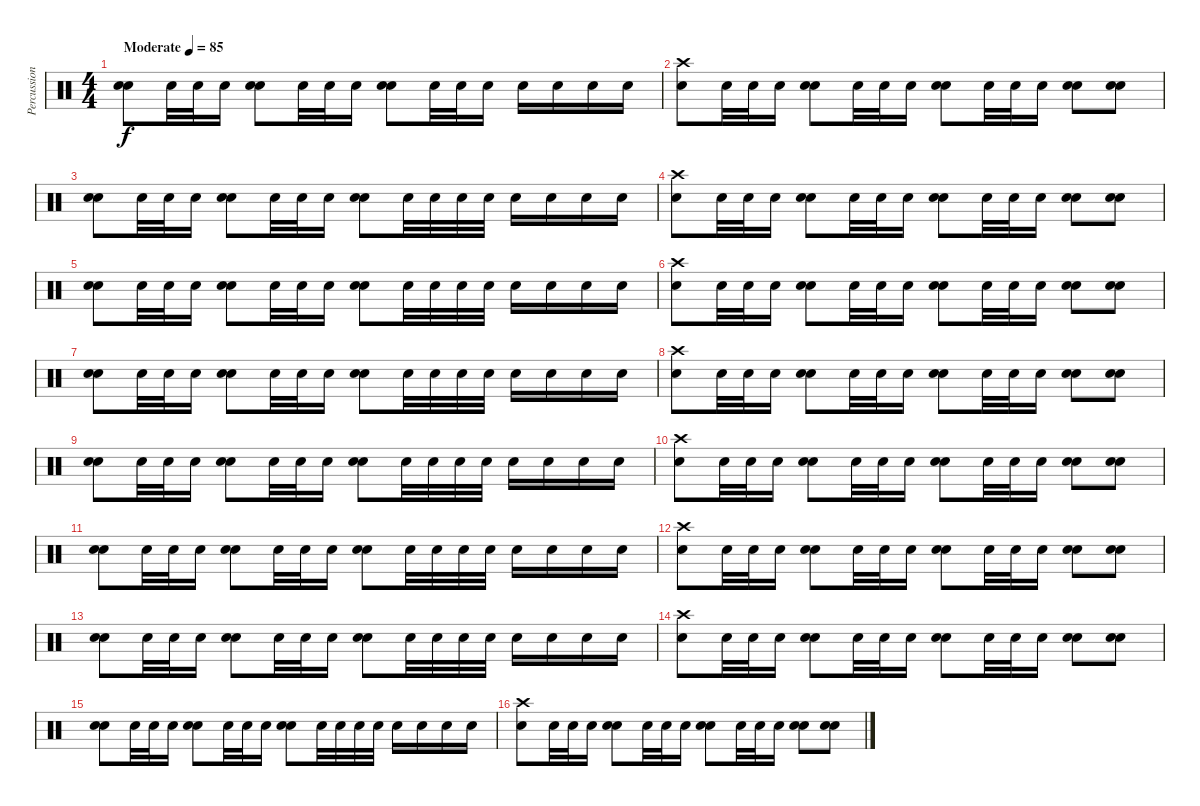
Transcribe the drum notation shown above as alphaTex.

\track ("Percussion" "Percussion") {instrument percussion}
\staff {score}
\articulation defaults
\ts (4 4)
\tempo (85 "Moderate")
\clef neutral
\ks c
("Electric Snare (hit)" "Electric Snare (hit)").8{dy f} "Electric Snare (hit)".32 "Electric Snare (hit)".32 "Electric Snare (hit)".16 ("Electric Snare (hit)" "Electric Snare (hit)").8 "Electric Snare (hit)".32 "Electric Snare (hit)".32 "Electric Snare (hit)".16 ("Electric Snare (hit)" "Electric Snare (hit)").8 "Electric Snare (hit)".32 "Electric Snare (hit)".32 "Electric Snare (hit)".16 "Electric Snare (hit)".16 "Electric Snare (hit)".16 "Electric Snare (hit)".16 "Electric Snare (hit)".16 |
("Crash high (hit)" "Electric Snare (hit)").8 "Electric Snare (hit)".32 "Electric Snare (hit)".32 "Electric Snare (hit)".16 ("Electric Snare (hit)" "Electric Snare (hit)").8 "Electric Snare (hit)".32 "Electric Snare (hit)".32 "Electric Snare (hit)".16 ("Electric Snare (hit)" "Electric Snare (hit)").8 "Electric Snare (hit)".32 "Electric Snare (hit)".32 "Electric Snare (hit)".16 ("Electric Snare (hit)" "Electric Snare (hit)").8 ("Electric Snare (hit)" "Electric Snare (hit)").8 |
("Electric Snare (hit)" "Electric Snare (hit)").8 "Electric Snare (hit)".32 "Electric Snare (hit)".32 "Electric Snare (hit)".16 ("Electric Snare (hit)" "Electric Snare (hit)").8 "Electric Snare (hit)".32 "Electric Snare (hit)".32 "Electric Snare (hit)".16 ("Electric Snare (hit)" "Electric Snare (hit)").8 "Electric Snare (hit)".32 "Electric Snare (hit)".32 "Electric Snare (hit)".32 "Electric Snare (hit)".32 "Electric Snare (hit)".16 "Electric Snare (hit)".16 "Electric Snare (hit)".16 "Electric Snare (hit)".16 |
("Crash high (hit)" "Electric Snare (hit)").8 "Electric Snare (hit)".32 "Electric Snare (hit)".32 "Electric Snare (hit)".16 ("Electric Snare (hit)" "Electric Snare (hit)").8 "Electric Snare (hit)".32 "Electric Snare (hit)".32 "Electric Snare (hit)".16 ("Electric Snare (hit)" "Electric Snare (hit)").8 "Electric Snare (hit)".32 "Electric Snare (hit)".32 "Electric Snare (hit)".16 ("Electric Snare (hit)" "Electric Snare (hit)").8 ("Electric Snare (hit)" "Electric Snare (hit)").8 |
("Electric Snare (hit)" "Electric Snare (hit)").8 "Electric Snare (hit)".32 "Electric Snare (hit)".32 "Electric Snare (hit)".16 ("Electric Snare (hit)" "Electric Snare (hit)").8 "Electric Snare (hit)".32 "Electric Snare (hit)".32 "Electric Snare (hit)".16 ("Electric Snare (hit)" "Electric Snare (hit)").8 "Electric Snare (hit)".32 "Electric Snare (hit)".32 "Electric Snare (hit)".32 "Electric Snare (hit)".32 "Electric Snare (hit)".16 "Electric Snare (hit)".16 "Electric Snare (hit)".16 "Electric Snare (hit)".16 |
("Crash high (hit)" "Electric Snare (hit)").8 "Electric Snare (hit)".32 "Electric Snare (hit)".32 "Electric Snare (hit)".16 ("Electric Snare (hit)" "Electric Snare (hit)").8 "Electric Snare (hit)".32 "Electric Snare (hit)".32 "Electric Snare (hit)".16 ("Electric Snare (hit)" "Electric Snare (hit)").8 "Electric Snare (hit)".32 "Electric Snare (hit)".32 "Electric Snare (hit)".16 ("Electric Snare (hit)" "Electric Snare (hit)").8 ("Electric Snare (hit)" "Electric Snare (hit)").8 |
("Electric Snare (hit)" "Electric Snare (hit)").8 "Electric Snare (hit)".32 "Electric Snare (hit)".32 "Electric Snare (hit)".16 ("Electric Snare (hit)" "Electric Snare (hit)").8 "Electric Snare (hit)".32 "Electric Snare (hit)".32 "Electric Snare (hit)".16 ("Electric Snare (hit)" "Electric Snare (hit)").8 "Electric Snare (hit)".32 "Electric Snare (hit)".32 "Electric Snare (hit)".32 "Electric Snare (hit)".32 "Electric Snare (hit)".16 "Electric Snare (hit)".16 "Electric Snare (hit)".16 "Electric Snare (hit)".16 |
("Crash high (hit)" "Electric Snare (hit)").8 "Electric Snare (hit)".32 "Electric Snare (hit)".32 "Electric Snare (hit)".16 ("Electric Snare (hit)" "Electric Snare (hit)").8 "Electric Snare (hit)".32 "Electric Snare (hit)".32 "Electric Snare (hit)".16 ("Electric Snare (hit)" "Electric Snare (hit)").8 "Electric Snare (hit)".32 "Electric Snare (hit)".32 "Electric Snare (hit)".16 ("Electric Snare (hit)" "Electric Snare (hit)").8 ("Electric Snare (hit)" "Electric Snare (hit)").8 |
("Electric Snare (hit)" "Electric Snare (hit)").8 "Electric Snare (hit)".32 "Electric Snare (hit)".32 "Electric Snare (hit)".16 ("Electric Snare (hit)" "Electric Snare (hit)").8 "Electric Snare (hit)".32 "Electric Snare (hit)".32 "Electric Snare (hit)".16 ("Electric Snare (hit)" "Electric Snare (hit)").8 "Electric Snare (hit)".32 "Electric Snare (hit)".32 "Electric Snare (hit)".32 "Electric Snare (hit)".32 "Electric Snare (hit)".16 "Electric Snare (hit)".16 "Electric Snare (hit)".16 "Electric Snare (hit)".16 |
("Crash high (hit)" "Electric Snare (hit)").8 "Electric Snare (hit)".32 "Electric Snare (hit)".32 "Electric Snare (hit)".16 ("Electric Snare (hit)" "Electric Snare (hit)").8 "Electric Snare (hit)".32 "Electric Snare (hit)".32 "Electric Snare (hit)".16 ("Electric Snare (hit)" "Electric Snare (hit)").8 "Electric Snare (hit)".32 "Electric Snare (hit)".32 "Electric Snare (hit)".16 ("Electric Snare (hit)" "Electric Snare (hit)").8 ("Electric Snare (hit)" "Electric Snare (hit)").8 |
("Electric Snare (hit)" "Electric Snare (hit)").8 "Electric Snare (hit)".32 "Electric Snare (hit)".32 "Electric Snare (hit)".16 ("Electric Snare (hit)" "Electric Snare (hit)").8 "Electric Snare (hit)".32 "Electric Snare (hit)".32 "Electric Snare (hit)".16 ("Electric Snare (hit)" "Electric Snare (hit)").8 "Electric Snare (hit)".32 "Electric Snare (hit)".32 "Electric Snare (hit)".32 "Electric Snare (hit)".32 "Electric Snare (hit)".16 "Electric Snare (hit)".16 "Electric Snare (hit)".16 "Electric Snare (hit)".16 |
("Crash high (hit)" "Electric Snare (hit)").8 "Electric Snare (hit)".32 "Electric Snare (hit)".32 "Electric Snare (hit)".16 ("Electric Snare (hit)" "Electric Snare (hit)").8 "Electric Snare (hit)".32 "Electric Snare (hit)".32 "Electric Snare (hit)".16 ("Electric Snare (hit)" "Electric Snare (hit)").8 "Electric Snare (hit)".32 "Electric Snare (hit)".32 "Electric Snare (hit)".16 ("Electric Snare (hit)" "Electric Snare (hit)").8 ("Electric Snare (hit)" "Electric Snare (hit)").8 |
("Electric Snare (hit)" "Electric Snare (hit)").8 "Electric Snare (hit)".32 "Electric Snare (hit)".32 "Electric Snare (hit)".16 ("Electric Snare (hit)" "Electric Snare (hit)").8 "Electric Snare (hit)".32 "Electric Snare (hit)".32 "Electric Snare (hit)".16 ("Electric Snare (hit)" "Electric Snare (hit)").8 "Electric Snare (hit)".32 "Electric Snare (hit)".32 "Electric Snare (hit)".32 "Electric Snare (hit)".32 "Electric Snare (hit)".16 "Electric Snare (hit)".16 "Electric Snare (hit)".16 "Electric Snare (hit)".16 |
("Crash high (hit)" "Electric Snare (hit)").8 "Electric Snare (hit)".32 "Electric Snare (hit)".32 "Electric Snare (hit)".16 ("Electric Snare (hit)" "Electric Snare (hit)").8 "Electric Snare (hit)".32 "Electric Snare (hit)".32 "Electric Snare (hit)".16 ("Electric Snare (hit)" "Electric Snare (hit)").8 "Electric Snare (hit)".32 "Electric Snare (hit)".32 "Electric Snare (hit)".16 ("Electric Snare (hit)" "Electric Snare (hit)").8 ("Electric Snare (hit)" "Electric Snare (hit)").8 |
("Electric Snare (hit)" "Electric Snare (hit)").8 "Electric Snare (hit)".32 "Electric Snare (hit)".32 "Electric Snare (hit)".16 ("Electric Snare (hit)" "Electric Snare (hit)").8 "Electric Snare (hit)".32 "Electric Snare (hit)".32 "Electric Snare (hit)".16 ("Electric Snare (hit)" "Electric Snare (hit)").8 "Electric Snare (hit)".32 "Electric Snare (hit)".32 "Electric Snare (hit)".32 "Electric Snare (hit)".32 "Electric Snare (hit)".16 "Electric Snare (hit)".16 "Electric Snare (hit)".16 "Electric Snare (hit)".16 |
("Crash high (hit)" "Electric Snare (hit)").8 "Electric Snare (hit)".32 "Electric Snare (hit)".32 "Electric Snare (hit)".16 ("Electric Snare (hit)" "Electric Snare (hit)").8 "Electric Snare (hit)".32 "Electric Snare (hit)".32 "Electric Snare (hit)".16 ("Electric Snare (hit)" "Electric Snare (hit)").8 "Electric Snare (hit)".32 "Electric Snare (hit)".32 "Electric Snare (hit)".16 ("Electric Snare (hit)" "Electric Snare (hit)").8 ("Electric Snare (hit)" "Electric Snare (hit)").8
